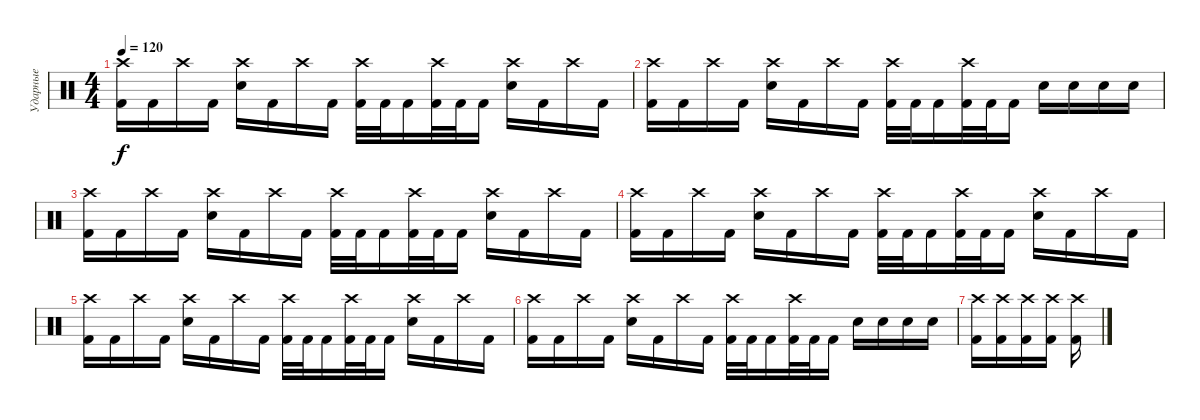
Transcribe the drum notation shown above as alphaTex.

\track ("Ударные" "Ударные") {instrument percussion}
\staff {score}
\articulation defaults
\ts (4 4)
\tempo 120
\clef neutral
\ks c
("Crash high (hit)" "Kick (hit) 2").16{dy f} "Kick (hit) 2".16 "Crash high (hit)".16 "Kick (hit) 2".16 ("Crash high (hit)" "Electric Snare (hit)").16 "Kick (hit) 2".16 "Crash high (hit)".16 "Kick (hit) 2".16 ("Crash high (hit)" "Kick (hit) 2").32 "Kick (hit) 2".32 "Kick (hit) 2".16 ("Crash high (hit)" "Kick (hit) 2").32 "Kick (hit) 2".32 "Kick (hit) 2".16 ("Crash high (hit)" "Electric Snare (hit)").16 "Kick (hit) 2".16 "Crash high (hit)".16 "Kick (hit) 2".16 |
("Crash high (hit)" "Kick (hit) 2").16 "Kick (hit) 2".16 "Crash high (hit)".16 "Kick (hit) 2".16 ("Crash high (hit)" "Electric Snare (hit)").16 "Kick (hit) 2".16 "Crash high (hit)".16 "Kick (hit) 2".16 ("Crash high (hit)" "Kick (hit) 2").32 "Kick (hit) 2".32 "Kick (hit) 2".16 ("Crash high (hit)" "Kick (hit) 2").32 "Kick (hit) 2".32 "Kick (hit) 2".16 "Electric Snare (hit)".16 "Electric Snare (hit)".16 "Electric Snare (hit)".16 "Electric Snare (hit)".16 |
("Crash high (hit)" "Kick (hit) 2").16 "Kick (hit) 2".16 "Crash high (hit)".16 "Kick (hit) 2".16 ("Crash high (hit)" "Electric Snare (hit)").16 "Kick (hit) 2".16 "Crash high (hit)".16 "Kick (hit) 2".16 ("Crash high (hit)" "Kick (hit) 2").32 "Kick (hit) 2".32 "Kick (hit) 2".16 ("Crash high (hit)" "Kick (hit) 2").32 "Kick (hit) 2".32 "Kick (hit) 2".16 ("Crash high (hit)" "Electric Snare (hit)").16 "Kick (hit) 2".16 "Crash high (hit)".16 "Kick (hit) 2".16 |
("Crash high (hit)" "Kick (hit) 2").16 "Kick (hit) 2".16 "Crash high (hit)".16 "Kick (hit) 2".16 ("Crash high (hit)" "Electric Snare (hit)").16 "Kick (hit) 2".16 "Crash high (hit)".16 "Kick (hit) 2".16 ("Crash high (hit)" "Kick (hit) 2").32 "Kick (hit) 2".32 "Kick (hit) 2".16 ("Crash high (hit)" "Kick (hit) 2").32 "Kick (hit) 2".32 "Kick (hit) 2".16 ("Crash high (hit)" "Electric Snare (hit)").16 "Kick (hit) 2".16 "Crash high (hit)".16 "Kick (hit) 2".16 |
("Crash high (hit)" "Kick (hit) 2").16 "Kick (hit) 2".16 "Crash high (hit)".16 "Kick (hit) 2".16 ("Crash high (hit)" "Electric Snare (hit)").16 "Kick (hit) 2".16 "Crash high (hit)".16 "Kick (hit) 2".16 ("Crash high (hit)" "Kick (hit) 2").32 "Kick (hit) 2".32 "Kick (hit) 2".16 ("Crash high (hit)" "Kick (hit) 2").32 "Kick (hit) 2".32 "Kick (hit) 2".16 ("Crash high (hit)" "Electric Snare (hit)").16 "Kick (hit) 2".16 "Crash high (hit)".16 "Kick (hit) 2".16 |
("Crash high (hit)" "Kick (hit) 2").16 "Kick (hit) 2".16 "Crash high (hit)".16 "Kick (hit) 2".16 ("Crash high (hit)" "Electric Snare (hit)").16 "Kick (hit) 2".16 "Crash high (hit)".16 "Kick (hit) 2".16 ("Crash high (hit)" "Kick (hit) 2").32 "Kick (hit) 2".32 "Kick (hit) 2".16 ("Crash high (hit)" "Kick (hit) 2").32 "Kick (hit) 2".32 "Kick (hit) 2".16 "Electric Snare (hit)".16 "Electric Snare (hit)".16 "Electric Snare (hit)".16 "Electric Snare (hit)".16 |
("Crash high (hit)" "Kick (hit) 2").16 ("Crash high (hit)" "Kick (hit) 2").16 ("Crash high (hit)" "Kick (hit) 2").16 ("Crash high (hit)" "Kick (hit) 2").16 ("Crash high (hit)" "Kick (hit) 2").16
